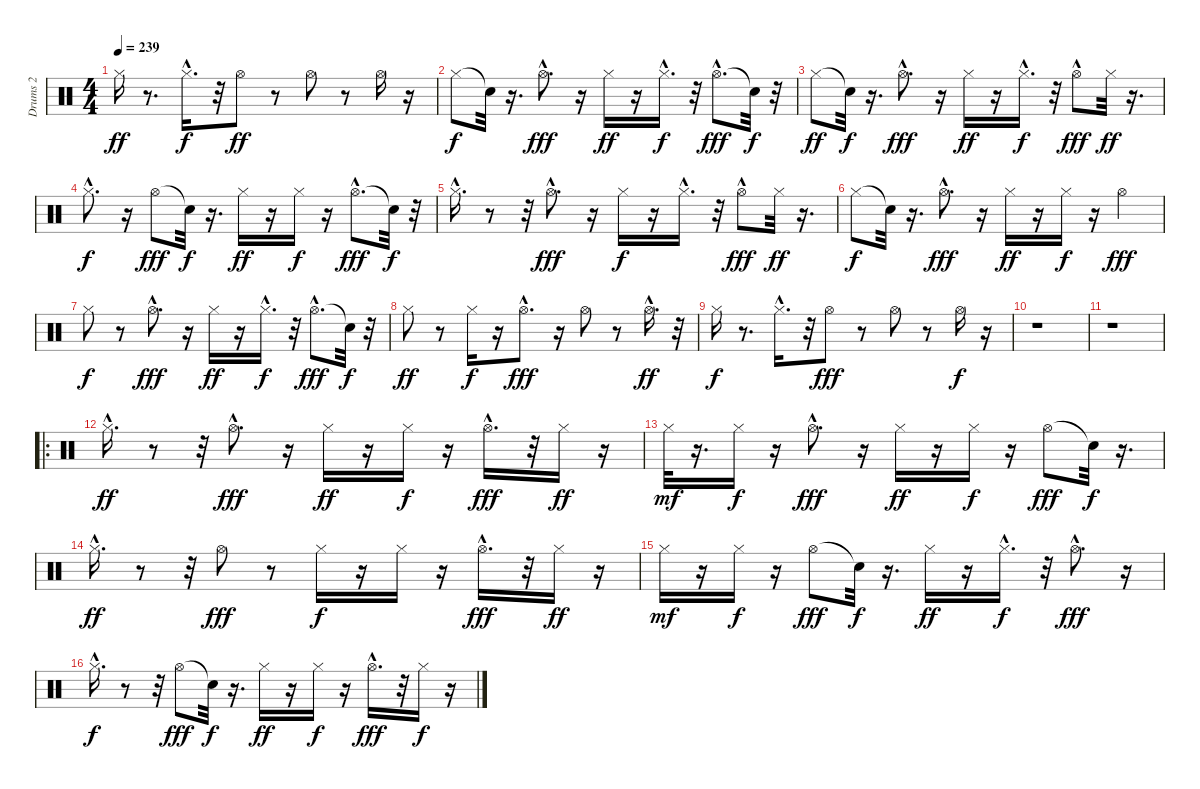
\track ("Drums 2" "Drums 2") {instrument percussion}
\staff {score}
\articulation defaults
\ts (4 4)
\tempo 239
\clef neutral
\ks c "Hi-Hat (closed)".16{dy ff}
r.8{d} "Hi-Hat (closed)"{hac}.16{d dy f} r.32 "Hi-Hat (open)".8{dy ff} r.8 "Hi-Hat (open)".8 r.8 "Hi-Hat (open)".16 r.16 |
"Hi-Hat (closed)".8{dy f} "Snare (hit)"{t}.32 r.16{d} "Hi-Hat (open)"{hac}.8{d dy fff} r.16 "Hi-Hat (closed)".16{dy ff} r.16 "Hi-Hat (closed)"{hac}.16{d dy f} r.32 "Hi-Hat (open)"{hac}.8{d dy fff} "Snare (hit)"{t}.32{dy f} r.32 |
"Hi-Hat (closed)".8{dy ff} "Snare (hit)"{t}.32{dy f} r.16{d} "Hi-Hat (open)"{hac}.8{d dy fff} r.16 "Hi-Hat (closed)".16{dy ff} r.16 "Hi-Hat (closed)"{hac}.16{d dy f} r.32 "Hi-Hat (open)"{hac}.8{dy fff} "Hi-Hat (closed)".32{dy ff} r.16{d} |
"Hi-Hat (closed)"{hac}.8{d dy f} r.16 "Hi-Hat (open)".8{dy fff} "Snare (hit)"{t}.32{dy f} r.16{d} "Hi-Hat (closed)".16{dy ff} r.16 "Hi-Hat (closed)".16{dy f} r.16 "Hi-Hat (open)"{hac}.8{d dy fff} "Snare (hit)"{t}.32{dy f} r.32 |
"Hi-Hat (closed)"{hac}.16{d} r.8 r.32 "Hi-Hat (open)"{hac}.8{d dy fff} r.16 "Hi-Hat (closed)".16{dy f} r.16 "Hi-Hat (closed)"{hac}.16{d} r.32 "Hi-Hat (open)"{hac}.8{dy fff} "Hi-Hat (closed)".32{dy ff} r.16{d} |
"Hi-Hat (closed)".8{dy f} "Snare (hit)"{t}.32 r.16{d} "Hi-Hat (open)"{hac}.8{d dy fff} r.16 "Hi-Hat (closed)".16{dy ff} r.16 "Hi-Hat (closed)".16{dy f} r.16 "Hi-Hat (open)".4{dy fff} |
"Hi-Hat (closed)".8{dy f} r.8 "Hi-Hat (open)"{hac}.8{d dy fff} r.16 "Hi-Hat (closed)".16{dy ff} r.16 "Hi-Hat (closed)"{hac}.16{d dy f} r.32 "Hi-Hat (open)"{hac}.8{d dy fff} "Snare (hit)"{t}.32{dy f} r.32 |
"Hi-Hat (closed)".8{dy ff} r.8 "Hi-Hat (closed)".16{dy f} r.16 "Hi-Hat (open)"{hac}.8{d dy fff} r.16 "Hi-Hat (open)".8 r.8 "Hi-Hat (open)"{hac}.16{d dy ff} r.32 |
"Hi-Hat (closed)".16{dy f} r.8{d} "Hi-Hat (closed)"{hac}.16{d} r.32 "Hi-Hat (open)".8{dy fff} r.8 "Hi-Hat (open)".8 r.8 "Hi-Hat (open)".16{dy f} r.16 |
r.1 |
r.1 |
\ro "Hi-Hat (closed)"{hac}.16{d dy ff}
r.8 r.32 "Hi-Hat (open)"{hac}.8{d dy fff} r.16 "Hi-Hat (closed)".16{dy ff} r.16 "Hi-Hat (closed)".16{dy f} r.16 "Hi-Hat (open)"{hac}.16{d dy fff} r.32 "Hi-Hat (closed)".16{dy ff} r.16 |
"Hi-Hat (closed)".32{dy mf} r.16{d} "Hi-Hat (closed)".16{dy f} r.16 "Hi-Hat (open)"{hac}.8{d dy fff} r.16 "Hi-Hat (closed)".16{dy ff} r.16 "Hi-Hat (closed)".16{dy f} r.16 "Hi-Hat (open)".8{dy fff} "Snare (hit)"{t}.32{dy f} r.16{d} |
"Hi-Hat (closed)"{hac}.16{d dy ff} r.8 r.32 "Hi-Hat (open)".8{dy fff} r.8 "Hi-Hat (closed)".16{dy f} r.16 "Hi-Hat (closed)".16 r.16 "Hi-Hat (open)"{hac}.16{d dy fff} r.32 "Hi-Hat (closed)".16{dy ff} r.16 |
"Hi-Hat (closed)".16{dy mf} r.16 "Hi-Hat (closed)".16{dy f} r.16 "Hi-Hat (open)".8{dy fff} "Snare (hit)"{t}.32{dy f} r.16{d} "Hi-Hat (closed)".16{dy ff} r.16 "Hi-Hat (closed)"{hac}.16{d dy f} r.32 "Hi-Hat (open)"{hac}.8{d dy fff} r.16 |
"Hi-Hat (closed)"{hac}.16{d dy f} r.8 r.32 "Hi-Hat (open)".8{dy fff} "Snare (hit)"{t}.32{dy f} r.16{d} "Hi-Hat (closed)".16{dy ff} r.16 "Hi-Hat (closed)".16{dy f} r.16 "Hi-Hat (open)"{hac}.16{d dy fff} r.32 "Hi-Hat (closed)".16{dy f} r.16
